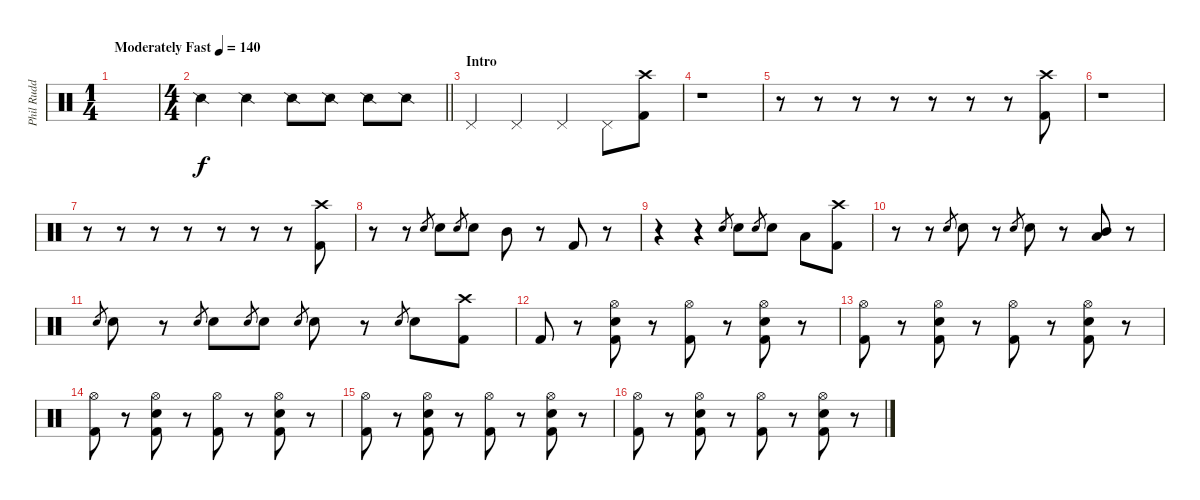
\track ("Phil Rudd" "Phil Rudd") {instrument percussion}
\staff {score}
\articulation defaults
\ts (1 4)
\tempo (140 "Moderately Fast")
\clef neutral
\ks c
|
\ts (4 4)
\barLineRight lightlight "Snare (side stick) 2".4 "Snare (side stick) 2".4 "Snare (side stick) 2".8 "Snare (side stick) 2".8 "Snare (side stick) 2".8 "Snare (side stick) 2".8
|
\section ("" "Intro")
"Pedal Hi-Hat (hit)".4 "Pedal Hi-Hat (hit)".4 "Pedal Hi-Hat (hit)".4 "Pedal Hi-Hat (hit)".8 ("Crash high (hit)" "Kick (hit) 2").8 |
r.1 |
r.8 r.8 r.8 r.8 r.8 r.8 r.8 ("Crash high (hit)" "Kick (hit) 2").8 |
r.1 |
r.8 r.8 r.8 r.8 r.8 r.8 r.8 ("Crash high (hit)" "Kick (hit) 2").8 |
r.8 r.8 "Electric Snare (hit)".8{gr} "Electric Snare (hit)".8 "Electric Snare (hit)".8{gr} "Electric Snare (hit)".8 "Mid Tom (hit)".8 r.8 "Kick (hit) 2".8 r.8 |
r.4 r.4 "Electric Snare (hit)".8{gr} "Electric Snare (hit)".8 "Electric Snare (hit)".8{gr} "Electric Snare (hit)".8 "Low Tom (hit)".8 ("Crash high (hit)" "Kick (hit) 2").8 |
r.8 r.8 "Electric Snare (hit)".8{gr} "Electric Snare (hit)".8 r.8 "Electric Snare (hit)".8{gr} "Electric Snare (hit)".8 r.8 ("Mid Tom (hit)" "Low Tom (hit)").8 r.8 |
"Electric Snare (hit)".8{gr} "Electric Snare (hit)".8 r.8 "Electric Snare (hit)".8{gr} "Electric Snare (hit)".8 "Electric Snare (hit)".8{gr} "Electric Snare (hit)".8 "Electric Snare (hit)".8{gr} "Electric Snare (hit)".8 r.8 "Electric Snare (hit)".8{gr} "Electric Snare (hit)".8 ("Crash high (hit)" "Kick (hit) 2").8 |
"Kick (hit) 2".8 r.8 ("Hi-Hat (open)" "Electric Snare (hit)" "Kick (hit) 2").8 r.8 ("Hi-Hat (open)" "Kick (hit) 2").8 r.8 ("Hi-Hat (open)" "Electric Snare (hit)" "Kick (hit) 2").8 r.8 |
("Hi-Hat (open)" "Kick (hit) 2").8 r.8 ("Hi-Hat (open)" "Electric Snare (hit)" "Kick (hit) 2").8 r.8 ("Hi-Hat (open)" "Kick (hit) 2").8 r.8 ("Hi-Hat (open)" "Electric Snare (hit)" "Kick (hit) 2").8 r.8 |
("Hi-Hat (open)" "Kick (hit) 2").8 r.8 ("Hi-Hat (open)" "Electric Snare (hit)" "Kick (hit) 2").8 r.8 ("Hi-Hat (open)" "Kick (hit) 2").8 r.8 ("Hi-Hat (open)" "Electric Snare (hit)" "Kick (hit) 2").8 r.8 |
("Hi-Hat (open)" "Kick (hit) 2").8 r.8 ("Hi-Hat (open)" "Electric Snare (hit)" "Kick (hit) 2").8 r.8 ("Hi-Hat (open)" "Kick (hit) 2").8 r.8 ("Hi-Hat (open)" "Electric Snare (hit)" "Kick (hit) 2").8 r.8 |
("Hi-Hat (open)" "Kick (hit) 2").8 r.8 ("Hi-Hat (open)" "Electric Snare (hit)" "Kick (hit) 2").8 r.8 ("Hi-Hat (open)" "Kick (hit) 2").8 r.8 ("Hi-Hat (open)" "Electric Snare (hit)" "Kick (hit) 2").8 r.8
